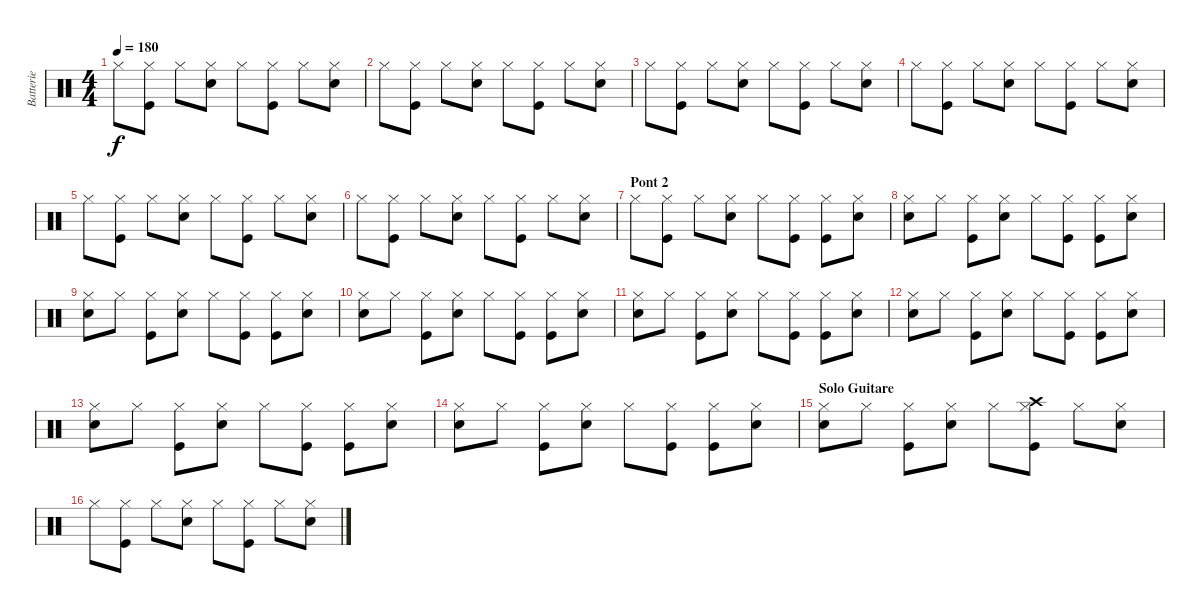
\track ("Batterie" "Batterie") {instrument percussion}
\staff {score}
\articulation defaults
\ts (4 4)
\tempo 180
\clef neutral
\ks c "Hi-Hat (closed)".8{dy f}
("Hi-Hat (closed)" "Kick (hit)").8 "Hi-Hat (closed)".8 ("Hi-Hat (closed)" "Snare (hit) 2").8 "Hi-Hat (closed)".8 ("Hi-Hat (closed)" "Kick (hit)").8 "Hi-Hat (closed)".8 ("Hi-Hat (closed)" "Snare (hit) 2").8 |
"Hi-Hat (closed)".8 ("Hi-Hat (closed)" "Kick (hit)").8 "Hi-Hat (closed)".8 ("Hi-Hat (closed)" "Snare (hit) 2").8 "Hi-Hat (closed)".8 ("Hi-Hat (closed)" "Kick (hit)").8 "Hi-Hat (closed)".8 ("Hi-Hat (closed)" "Snare (hit) 2").8 |
"Hi-Hat (closed)".8 ("Hi-Hat (closed)" "Kick (hit)").8 "Hi-Hat (closed)".8 ("Hi-Hat (closed)" "Snare (hit) 2").8 "Hi-Hat (closed)".8 ("Hi-Hat (closed)" "Kick (hit)").8 "Hi-Hat (closed)".8 ("Hi-Hat (closed)" "Snare (hit) 2").8 |
"Hi-Hat (closed)".8 ("Hi-Hat (closed)" "Kick (hit)").8 "Hi-Hat (closed)".8 ("Hi-Hat (closed)" "Snare (hit) 2").8 "Hi-Hat (closed)".8 ("Hi-Hat (closed)" "Kick (hit)").8 "Hi-Hat (closed)".8 ("Hi-Hat (closed)" "Snare (hit) 2").8 |
"Hi-Hat (closed)".8 ("Hi-Hat (closed)" "Kick (hit)").8 "Hi-Hat (closed)".8 ("Hi-Hat (closed)" "Snare (hit) 2").8 "Hi-Hat (closed)".8 ("Hi-Hat (closed)" "Kick (hit)").8 "Hi-Hat (closed)".8 ("Hi-Hat (closed)" "Snare (hit) 2").8 |
"Hi-Hat (closed)".8 ("Hi-Hat (closed)" "Kick (hit)").8 "Hi-Hat (closed)".8 ("Hi-Hat (closed)" "Snare (hit) 2").8 "Hi-Hat (closed)".8 ("Hi-Hat (closed)" "Kick (hit)").8 "Hi-Hat (closed)".8 ("Hi-Hat (closed)" "Snare (hit) 2").8 |
\section ("" "Pont 2")
"Hi-Hat (closed)".8 ("Hi-Hat (closed)" "Kick (hit)").8 "Hi-Hat (closed)".8 ("Hi-Hat (closed)" "Snare (hit) 2").8 "Hi-Hat (closed)".8 ("Hi-Hat (closed)" "Kick (hit)").8 ("Hi-Hat (closed)" "Kick (hit)").8 ("Hi-Hat (closed)" "Snare (hit) 2").8 |
("Hi-Hat (closed)" "Snare (hit) 2").8 "Hi-Hat (closed)".8 ("Hi-Hat (closed)" "Kick (hit)").8 ("Hi-Hat (closed)" "Snare (hit) 2").8 "Hi-Hat (closed)".8 ("Hi-Hat (closed)" "Kick (hit)").8 ("Hi-Hat (closed)" "Kick (hit)").8 ("Hi-Hat (closed)" "Snare (hit) 2").8 |
("Hi-Hat (closed)" "Snare (hit) 2").8 "Hi-Hat (closed)".8 ("Hi-Hat (closed)" "Kick (hit)").8 ("Hi-Hat (closed)" "Snare (hit) 2").8 "Hi-Hat (closed)".8 ("Hi-Hat (closed)" "Kick (hit)").8 ("Hi-Hat (closed)" "Kick (hit)").8 ("Hi-Hat (closed)" "Snare (hit) 2").8 |
("Hi-Hat (closed)" "Snare (hit) 2").8 "Hi-Hat (closed)".8 ("Hi-Hat (closed)" "Kick (hit)").8 ("Hi-Hat (closed)" "Snare (hit) 2").8 "Hi-Hat (closed)".8 ("Hi-Hat (closed)" "Kick (hit)").8 ("Hi-Hat (closed)" "Kick (hit)").8 ("Hi-Hat (closed)" "Snare (hit) 2").8 |
("Hi-Hat (closed)" "Snare (hit) 2").8 "Hi-Hat (closed)".8 ("Hi-Hat (closed)" "Kick (hit)").8 ("Hi-Hat (closed)" "Snare (hit) 2").8 "Hi-Hat (closed)".8 ("Hi-Hat (closed)" "Kick (hit)").8 ("Hi-Hat (closed)" "Kick (hit)").8 ("Hi-Hat (closed)" "Snare (hit) 2").8 |
("Hi-Hat (closed)" "Snare (hit) 2").8 "Hi-Hat (closed)".8 ("Hi-Hat (closed)" "Kick (hit)").8 ("Hi-Hat (closed)" "Snare (hit) 2").8 "Hi-Hat (closed)".8 ("Hi-Hat (closed)" "Kick (hit)").8 ("Hi-Hat (closed)" "Kick (hit)").8 ("Hi-Hat (closed)" "Snare (hit) 2").8 |
("Hi-Hat (closed)" "Snare (hit) 2").8 "Hi-Hat (closed)".8 ("Hi-Hat (closed)" "Kick (hit)").8 ("Hi-Hat (closed)" "Snare (hit) 2").8 "Hi-Hat (closed)".8 ("Hi-Hat (closed)" "Kick (hit)").8 ("Hi-Hat (closed)" "Kick (hit)").8 ("Hi-Hat (closed)" "Snare (hit) 2").8 |
("Hi-Hat (closed)" "Snare (hit) 2").8 "Hi-Hat (closed)".8 ("Hi-Hat (closed)" "Kick (hit)").8 ("Hi-Hat (closed)" "Snare (hit) 2").8 "Hi-Hat (closed)".8 ("Hi-Hat (closed)" "Kick (hit)").8 ("Hi-Hat (closed)" "Kick (hit)").8 ("Hi-Hat (closed)" "Snare (hit) 2").8 |
\section ("" "Solo Guitare")
("Hi-Hat (closed)" "Snare (hit) 2").8 "Hi-Hat (closed)".8 ("Hi-Hat (closed)" "Kick (hit)").8 ("Hi-Hat (closed)" "Snare (hit) 2").8 "Hi-Hat (closed)".8 ("Crash high (hit)" "Hi-Hat (closed)" "Kick (hit)").8 "Hi-Hat (closed)".8 ("Hi-Hat (closed)" "Snare (hit) 2").8 |
"Hi-Hat (closed)".8 ("Hi-Hat (closed)" "Kick (hit)").8 "Hi-Hat (closed)".8 ("Hi-Hat (closed)" "Snare (hit) 2").8 "Hi-Hat (closed)".8 ("Hi-Hat (closed)" "Kick (hit)").8 "Hi-Hat (closed)".8 ("Hi-Hat (closed)" "Snare (hit) 2").8
